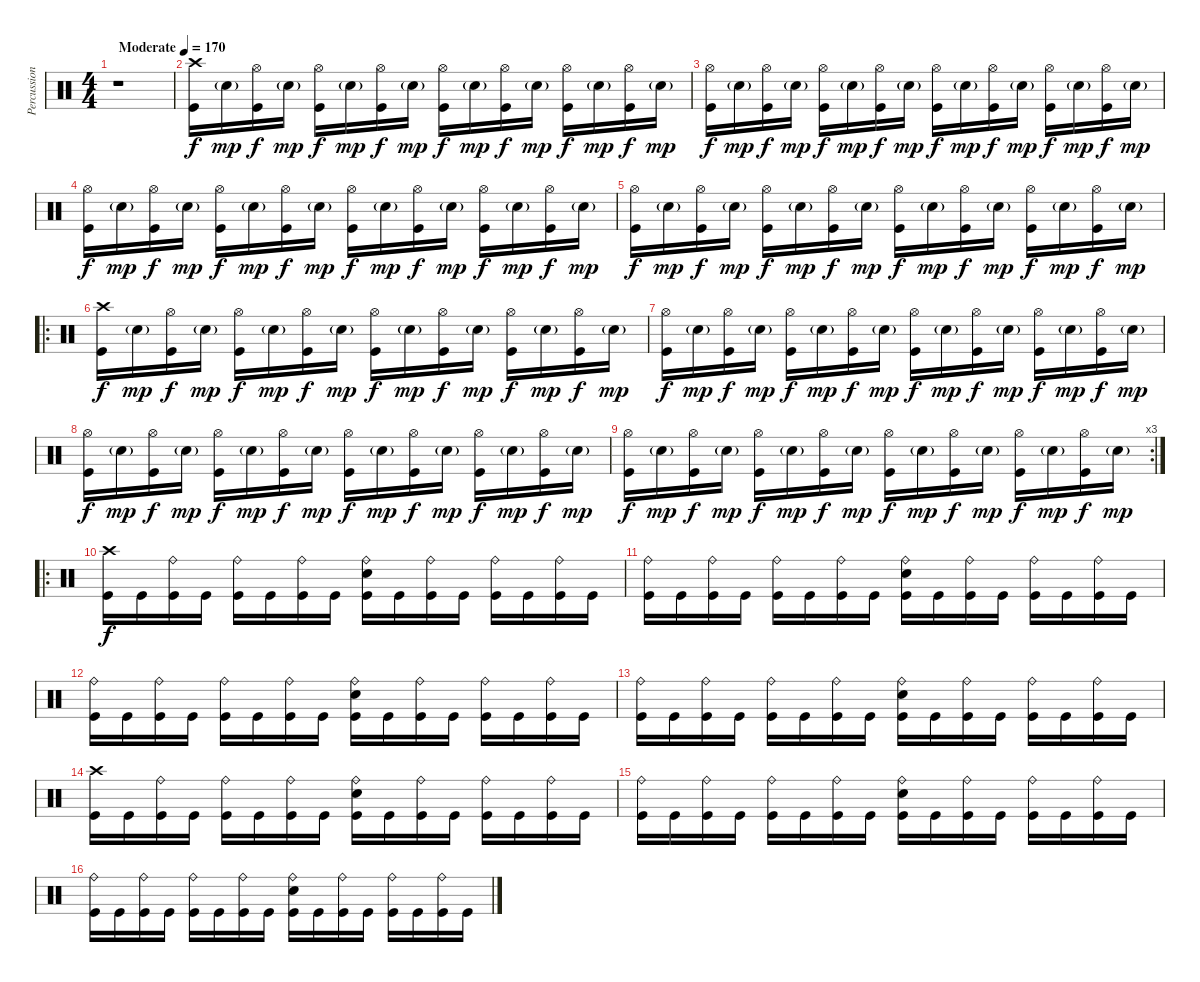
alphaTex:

\track ("Percussion" "Percussion") {instrument percussion}
\staff {score}
\articulation defaults
\ts (4 4)
\tempo (170 "Moderate")
\clef neutral
\ks c
r.1{dy f} |
("Crash high (hit)" "Kick (hit)").16 "Snare (hit) 2"{g}.16{dy mp} ("Hi-Hat (open)" "Kick (hit)").16{dy f} "Snare (hit) 2"{g}.16{dy mp} ("Hi-Hat (open)" "Kick (hit)").16{dy f} "Snare (hit) 2"{g}.16{dy mp} ("Hi-Hat (open)" "Kick (hit)").16{dy f} "Snare (hit) 2"{g}.16{dy mp} ("Hi-Hat (open)" "Kick (hit)").16{dy f} "Snare (hit) 2"{g}.16{dy mp} ("Hi-Hat (open)" "Kick (hit)").16{dy f} "Snare (hit) 2"{g}.16{dy mp} ("Hi-Hat (open)" "Kick (hit)").16{dy f} "Snare (hit) 2"{g}.16{dy mp} ("Hi-Hat (open)" "Kick (hit)").16{dy f} "Snare (hit) 2"{g}.16{dy mp} |
("Hi-Hat (open)" "Kick (hit)").16{dy f} "Snare (hit) 2"{g}.16{dy mp} ("Hi-Hat (open)" "Kick (hit)").16{dy f} "Snare (hit) 2"{g}.16{dy mp} ("Hi-Hat (open)" "Kick (hit)").16{dy f} "Snare (hit) 2"{g}.16{dy mp} ("Hi-Hat (open)" "Kick (hit)").16{dy f} "Snare (hit) 2"{g}.16{dy mp} ("Hi-Hat (open)" "Kick (hit)").16{dy f} "Snare (hit) 2"{g}.16{dy mp} ("Hi-Hat (open)" "Kick (hit)").16{dy f} "Snare (hit) 2"{g}.16{dy mp} ("Hi-Hat (open)" "Kick (hit)").16{dy f} "Snare (hit) 2"{g}.16{dy mp} ("Hi-Hat (open)" "Kick (hit)").16{dy f} "Snare (hit) 2"{g}.16{dy mp} |
("Hi-Hat (open)" "Kick (hit)").16{dy f} "Snare (hit) 2"{g}.16{dy mp} ("Hi-Hat (open)" "Kick (hit)").16{dy f} "Snare (hit) 2"{g}.16{dy mp} ("Hi-Hat (open)" "Kick (hit)").16{dy f} "Snare (hit) 2"{g}.16{dy mp} ("Hi-Hat (open)" "Kick (hit)").16{dy f} "Snare (hit) 2"{g}.16{dy mp} ("Hi-Hat (open)" "Kick (hit)").16{dy f} "Snare (hit) 2"{g}.16{dy mp} ("Hi-Hat (open)" "Kick (hit)").16{dy f} "Snare (hit) 2"{g}.16{dy mp} ("Hi-Hat (open)" "Kick (hit)").16{dy f} "Snare (hit) 2"{g}.16{dy mp} ("Hi-Hat (open)" "Kick (hit)").16{dy f} "Snare (hit) 2"{g}.16{dy mp} |
("Hi-Hat (open)" "Kick (hit)").16{dy f} "Snare (hit) 2"{g}.16{dy mp} ("Hi-Hat (open)" "Kick (hit)").16{dy f} "Snare (hit) 2"{g}.16{dy mp} ("Hi-Hat (open)" "Kick (hit)").16{dy f} "Snare (hit) 2"{g}.16{dy mp} ("Hi-Hat (open)" "Kick (hit)").16{dy f} "Snare (hit) 2"{g}.16{dy mp} ("Hi-Hat (open)" "Kick (hit)").16{dy f} "Snare (hit) 2"{g}.16{dy mp} ("Hi-Hat (open)" "Kick (hit)").16{dy f} "Snare (hit) 2"{g}.16{dy mp} ("Hi-Hat (open)" "Kick (hit)").16{dy f} "Snare (hit) 2"{g}.16{dy mp} ("Hi-Hat (open)" "Kick (hit)").16{dy f} "Snare (hit) 2"{g}.16{dy mp} |
\ro
("Crash high (hit)" "Kick (hit)").16{dy f} "Snare (hit) 2"{g}.16{dy mp} ("Hi-Hat (open)" "Kick (hit)").16{dy f} "Snare (hit) 2"{g}.16{dy mp} ("Hi-Hat (open)" "Kick (hit)").16{dy f} "Snare (hit) 2"{g}.16{dy mp} ("Hi-Hat (open)" "Kick (hit)").16{dy f} "Snare (hit) 2"{g}.16{dy mp} ("Hi-Hat (open)" "Kick (hit)").16{dy f} "Snare (hit) 2"{g}.16{dy mp} ("Hi-Hat (open)" "Kick (hit)").16{dy f} "Snare (hit) 2"{g}.16{dy mp} ("Hi-Hat (open)" "Kick (hit)").16{dy f} "Snare (hit) 2"{g}.16{dy mp} ("Hi-Hat (open)" "Kick (hit)").16{dy f} "Snare (hit) 2"{g}.16{dy mp} |
("Hi-Hat (open)" "Kick (hit)").16{dy f} "Snare (hit) 2"{g}.16{dy mp} ("Hi-Hat (open)" "Kick (hit)").16{dy f} "Snare (hit) 2"{g}.16{dy mp} ("Hi-Hat (open)" "Kick (hit)").16{dy f} "Snare (hit) 2"{g}.16{dy mp} ("Hi-Hat (open)" "Kick (hit)").16{dy f} "Snare (hit) 2"{g}.16{dy mp} ("Hi-Hat (open)" "Kick (hit)").16{dy f} "Snare (hit) 2"{g}.16{dy mp} ("Hi-Hat (open)" "Kick (hit)").16{dy f} "Snare (hit) 2"{g}.16{dy mp} ("Hi-Hat (open)" "Kick (hit)").16{dy f} "Snare (hit) 2"{g}.16{dy mp} ("Hi-Hat (open)" "Kick (hit)").16{dy f} "Snare (hit) 2"{g}.16{dy mp} |
("Hi-Hat (open)" "Kick (hit)").16{dy f} "Snare (hit) 2"{g}.16{dy mp} ("Hi-Hat (open)" "Kick (hit)").16{dy f} "Snare (hit) 2"{g}.16{dy mp} ("Hi-Hat (open)" "Kick (hit)").16{dy f} "Snare (hit) 2"{g}.16{dy mp} ("Hi-Hat (open)" "Kick (hit)").16{dy f} "Snare (hit) 2"{g}.16{dy mp} ("Hi-Hat (open)" "Kick (hit)").16{dy f} "Snare (hit) 2"{g}.16{dy mp} ("Hi-Hat (open)" "Kick (hit)").16{dy f} "Snare (hit) 2"{g}.16{dy mp} ("Hi-Hat (open)" "Kick (hit)").16{dy f} "Snare (hit) 2"{g}.16{dy mp} ("Hi-Hat (open)" "Kick (hit)").16{dy f} "Snare (hit) 2"{g}.16{dy mp} |
\rc 3
("Hi-Hat (open)" "Kick (hit)").16{dy f} "Snare (hit) 2"{g}.16{dy mp} ("Hi-Hat (open)" "Kick (hit)").16{dy f} "Snare (hit) 2"{g}.16{dy mp} ("Hi-Hat (open)" "Kick (hit)").16{dy f} "Snare (hit) 2"{g}.16{dy mp} ("Hi-Hat (open)" "Kick (hit)").16{dy f} "Snare (hit) 2"{g}.16{dy mp} ("Hi-Hat (open)" "Kick (hit)").16{dy f} "Snare (hit) 2"{g}.16{dy mp} ("Hi-Hat (open)" "Kick (hit)").16{dy f} "Snare (hit) 2"{g}.16{dy mp} ("Hi-Hat (open)" "Kick (hit)").16{dy f} "Snare (hit) 2"{g}.16{dy mp} ("Hi-Hat (open)" "Kick (hit)").16{dy f} "Snare (hit) 2"{g}.16{dy mp} |
\ro
("Crash high (hit)" "Kick (hit)").16{dy f} "Kick (hit)".16 ("Ride (bell)" "Kick (hit)").16 "Kick (hit)".16 ("Ride (bell)" "Kick (hit)").16 "Kick (hit)".16 ("Ride (bell)" "Kick (hit)").16 "Kick (hit)".16 ("Ride (bell)" "Snare (hit) 2" "Kick (hit)").16 "Kick (hit)".16 ("Ride (bell)" "Kick (hit)").16 "Kick (hit)".16 ("Ride (bell)" "Kick (hit)").16 "Kick (hit)".16 ("Ride (bell)" "Kick (hit)").16 "Kick (hit)".16 |
("Ride (bell)" "Kick (hit)").16 "Kick (hit)".16 ("Ride (bell)" "Kick (hit)").16 "Kick (hit)".16 ("Ride (bell)" "Kick (hit)").16 "Kick (hit)".16 ("Ride (bell)" "Kick (hit)").16 "Kick (hit)".16 ("Ride (bell)" "Snare (hit) 2" "Kick (hit)").16 "Kick (hit)".16 ("Ride (bell)" "Kick (hit)").16 "Kick (hit)".16 ("Ride (bell)" "Kick (hit)").16 "Kick (hit)".16 ("Ride (bell)" "Kick (hit)").16 "Kick (hit)".16 |
("Ride (bell)" "Kick (hit)").16 "Kick (hit)".16 ("Ride (bell)" "Kick (hit)").16 "Kick (hit)".16 ("Ride (bell)" "Kick (hit)").16 "Kick (hit)".16 ("Ride (bell)" "Kick (hit)").16 "Kick (hit)".16 ("Ride (bell)" "Snare (hit) 2" "Kick (hit)").16 "Kick (hit)".16 ("Ride (bell)" "Kick (hit)").16 "Kick (hit)".16 ("Ride (bell)" "Kick (hit)").16 "Kick (hit)".16 ("Ride (bell)" "Kick (hit)").16 "Kick (hit)".16 |
("Ride (bell)" "Kick (hit)").16 "Kick (hit)".16 ("Ride (bell)" "Kick (hit)").16 "Kick (hit)".16 ("Ride (bell)" "Kick (hit)").16 "Kick (hit)".16 ("Ride (bell)" "Kick (hit)").16 "Kick (hit)".16 ("Ride (bell)" "Snare (hit) 2" "Kick (hit)").16 "Kick (hit)".16 ("Ride (bell)" "Kick (hit)").16 "Kick (hit)".16 ("Ride (bell)" "Kick (hit)").16 "Kick (hit)".16 ("Ride (bell)" "Kick (hit)").16 "Kick (hit)".16 |
("Crash high (hit)" "Kick (hit)").16 "Kick (hit)".16 ("Ride (bell)" "Kick (hit)").16 "Kick (hit)".16 ("Ride (bell)" "Kick (hit)").16 "Kick (hit)".16 ("Ride (bell)" "Kick (hit)").16 "Kick (hit)".16 ("Ride (bell)" "Snare (hit) 2" "Kick (hit)").16 "Kick (hit)".16 ("Ride (bell)" "Kick (hit)").16 "Kick (hit)".16 ("Ride (bell)" "Kick (hit)").16 "Kick (hit)".16 ("Ride (bell)" "Kick (hit)").16 "Kick (hit)".16 |
("Ride (bell)" "Kick (hit)").16 "Kick (hit)".16 ("Ride (bell)" "Kick (hit)").16 "Kick (hit)".16 ("Ride (bell)" "Kick (hit)").16 "Kick (hit)".16 ("Ride (bell)" "Kick (hit)").16 "Kick (hit)".16 ("Ride (bell)" "Snare (hit) 2" "Kick (hit)").16 "Kick (hit)".16 ("Ride (bell)" "Kick (hit)").16 "Kick (hit)".16 ("Ride (bell)" "Kick (hit)").16 "Kick (hit)".16 ("Ride (bell)" "Kick (hit)").16 "Kick (hit)".16 |
("Ride (bell)" "Kick (hit)").16 "Kick (hit)".16 ("Ride (bell)" "Kick (hit)").16 "Kick (hit)".16 ("Ride (bell)" "Kick (hit)").16 "Kick (hit)".16 ("Ride (bell)" "Kick (hit)").16 "Kick (hit)".16 ("Ride (bell)" "Snare (hit) 2" "Kick (hit)").16 "Kick (hit)".16 ("Ride (bell)" "Kick (hit)").16 "Kick (hit)".16 ("Ride (bell)" "Kick (hit)").16 "Kick (hit)".16 ("Ride (bell)" "Kick (hit)").16 "Kick (hit)".16
